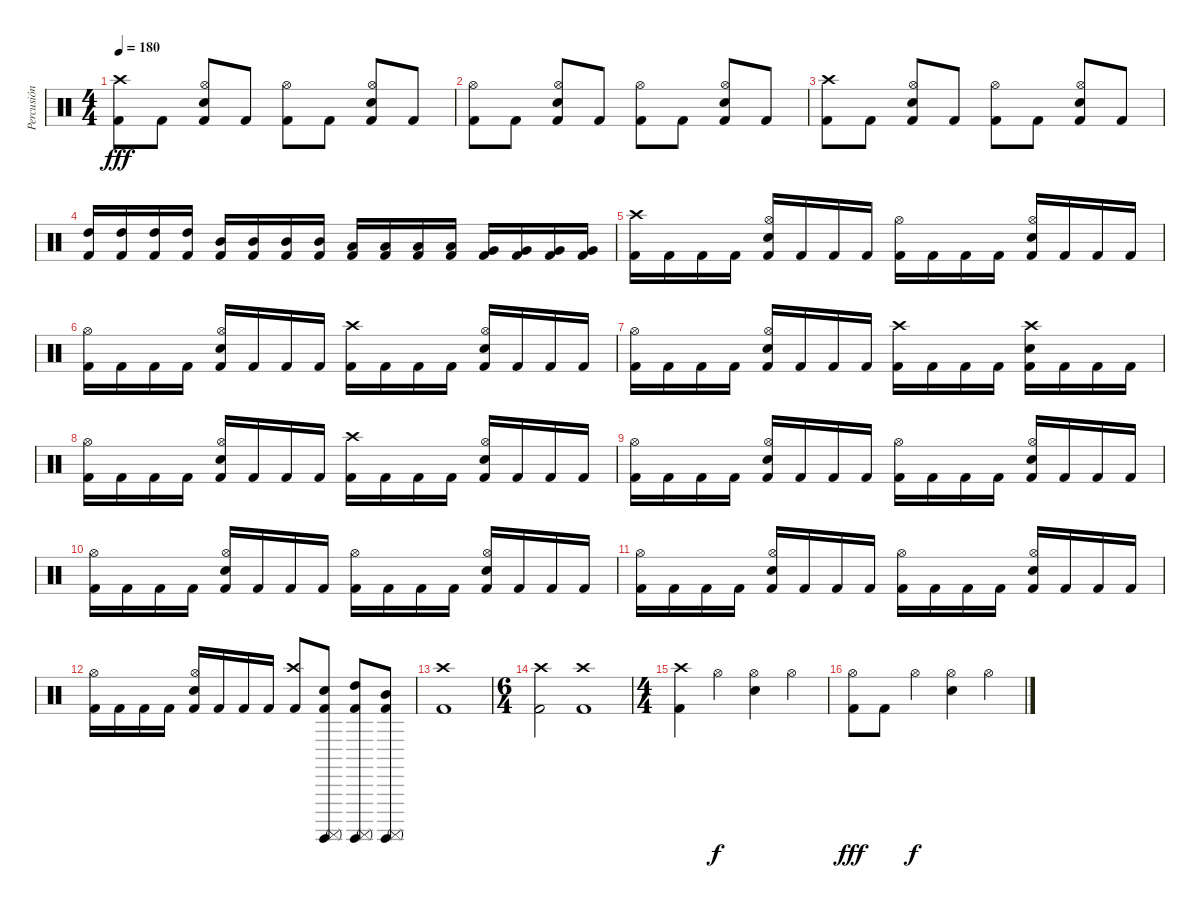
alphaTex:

\track ("Percusión" "Percusión") {instrument percussion}
\staff {score}
\articulation defaults
\ts (4 4)
\tempo 180
\clef neutral
\ks c
("Crash high (hit)" "Kick (hit) 2").8{dy fff} "Kick (hit) 2".8 ("Hi-Hat (open)" "Electric Snare (hit)" "Kick (hit) 2").8 "Kick (hit) 2".8 ("Hi-Hat (open)" "Kick (hit) 2").8 "Kick (hit) 2".8 ("Hi-Hat (open)" "Electric Snare (hit)" "Kick (hit) 2").8 "Kick (hit) 2".8 |
("Hi-Hat (open)" "Kick (hit) 2").8 "Kick (hit) 2".8 ("Hi-Hat (open)" "Electric Snare (hit)" "Kick (hit) 2").8 "Kick (hit) 2".8 ("Hi-Hat (open)" "Kick (hit) 2").8 "Kick (hit) 2".8 ("Hi-Hat (open)" "Electric Snare (hit)" "Kick (hit) 2").8 "Kick (hit) 2".8 |
("Crash high (hit)" "Kick (hit) 2").8 "Kick (hit) 2".8 ("Hi-Hat (open)" "Electric Snare (hit)" "Kick (hit) 2").8 "Kick (hit) 2".8 ("Hi-Hat (open)" "Kick (hit) 2").8 "Kick (hit) 2".8 ("Hi-Hat (open)" "Electric Snare (hit)" "Kick (hit) 2").8 "Kick (hit) 2".8 |
("High Tom (hit)" "Kick (hit) 2").16 ("High Tom (hit)" "Kick (hit) 2").16 ("High Tom (hit)" "Kick (hit) 2").16 ("High Tom (hit)" "Kick (hit) 2").16 ("Mid Tom (hit)" "Kick (hit) 2").16 ("Mid Tom (hit)" "Kick (hit) 2").16 ("Mid Tom (hit)" "Kick (hit) 2").16 ("Mid Tom (hit)" "Kick (hit) 2").16 ("Low Tom (hit)" "Kick (hit) 2").16 ("Low Tom (hit)" "Kick (hit) 2").16 ("Low Tom (hit)" "Kick (hit) 2").16 ("Low Tom (hit)" "Kick (hit) 2").16 ("Very Low Tom (hit)" "Kick (hit) 2").16 ("Very Low Tom (hit)" "Kick (hit) 2").16 ("Very Low Tom (hit)" "Kick (hit) 2").16 ("Very Low Tom (hit)" "Kick (hit) 2").16 |
("Crash high (hit)" "Kick (hit) 2").16 "Kick (hit) 2".16 "Kick (hit) 2".16 "Kick (hit) 2".16 ("Hi-Hat (open)" "Electric Snare (hit)" "Kick (hit) 2").16 "Kick (hit) 2".16 "Kick (hit) 2".16 "Kick (hit) 2".16 ("Hi-Hat (open)" "Kick (hit) 2").16 "Kick (hit) 2".16 "Kick (hit) 2".16 "Kick (hit) 2".16 ("Hi-Hat (open)" "Electric Snare (hit)" "Kick (hit) 2").16 "Kick (hit) 2".16 "Kick (hit) 2".16 "Kick (hit) 2".16 |
("Hi-Hat (open)" "Kick (hit) 2").16 "Kick (hit) 2".16 "Kick (hit) 2".16 "Kick (hit) 2".16 ("Hi-Hat (open)" "Electric Snare (hit)" "Kick (hit) 2").16 "Kick (hit) 2".16 "Kick (hit) 2".16 "Kick (hit) 2".16 ("Crash high (hit)" "Kick (hit) 2").16 "Kick (hit) 2".16 "Kick (hit) 2".16 "Kick (hit) 2".16 ("Hi-Hat (open)" "Electric Snare (hit)" "Kick (hit) 2").16 "Kick (hit) 2".16 "Kick (hit) 2".16 "Kick (hit) 2".16 |
("Hi-Hat (open)" "Kick (hit) 2").16 "Kick (hit) 2".16 "Kick (hit) 2".16 "Kick (hit) 2".16 ("Hi-Hat (open)" "Electric Snare (hit)" "Kick (hit) 2").16 "Kick (hit) 2".16 "Kick (hit) 2".16 "Kick (hit) 2".16 ("Crash high (hit)" "Kick (hit) 2").16 "Kick (hit) 2".16 "Kick (hit) 2".16 "Kick (hit) 2".16 ("Crash high (hit)" "Electric Snare (hit)" "Kick (hit) 2").16 "Kick (hit) 2".16 "Kick (hit) 2".16 "Kick (hit) 2".16 |
("Hi-Hat (open)" "Kick (hit) 2").16 "Kick (hit) 2".16 "Kick (hit) 2".16 "Kick (hit) 2".16 ("Hi-Hat (open)" "Electric Snare (hit)" "Kick (hit) 2").16 "Kick (hit) 2".16 "Kick (hit) 2".16 "Kick (hit) 2".16 ("Crash high (hit)" "Kick (hit) 2").16 "Kick (hit) 2".16 "Kick (hit) 2".16 "Kick (hit) 2".16 ("Hi-Hat (open)" "Electric Snare (hit)" "Kick (hit) 2").16 "Kick (hit) 2".16 "Kick (hit) 2".16 "Kick (hit) 2".16 |
("Hi-Hat (open)" "Kick (hit) 2").16 "Kick (hit) 2".16 "Kick (hit) 2".16 "Kick (hit) 2".16 ("Hi-Hat (open)" "Electric Snare (hit)" "Kick (hit) 2").16 "Kick (hit) 2".16 "Kick (hit) 2".16 "Kick (hit) 2".16 ("Hi-Hat (open)" "Kick (hit) 2").16 "Kick (hit) 2".16 "Kick (hit) 2".16 "Kick (hit) 2".16 ("Hi-Hat (open)" "Electric Snare (hit)" "Kick (hit) 2").16 "Kick (hit) 2".16 "Kick (hit) 2".16 "Kick (hit) 2".16 |
("Hi-Hat (open)" "Kick (hit) 2").16 "Kick (hit) 2".16 "Kick (hit) 2".16 "Kick (hit) 2".16 ("Hi-Hat (open)" "Electric Snare (hit)" "Kick (hit) 2").16 "Kick (hit) 2".16 "Kick (hit) 2".16 "Kick (hit) 2".16 ("Hi-Hat (open)" "Kick (hit) 2").16 "Kick (hit) 2".16 "Kick (hit) 2".16 "Kick (hit) 2".16 ("Hi-Hat (open)" "Electric Snare (hit)" "Kick (hit) 2").16 "Kick (hit) 2".16 "Kick (hit) 2".16 "Kick (hit) 2".16 |
("Hi-Hat (open)" "Kick (hit) 2").16 "Kick (hit) 2".16 "Kick (hit) 2".16 "Kick (hit) 2".16 ("Hi-Hat (open)" "Electric Snare (hit)" "Kick (hit) 2").16 "Kick (hit) 2".16 "Kick (hit) 2".16 "Kick (hit) 2".16 ("Hi-Hat (open)" "Kick (hit) 2").16 "Kick (hit) 2".16 "Kick (hit) 2".16 "Kick (hit) 2".16 ("Hi-Hat (open)" "Electric Snare (hit)" "Kick (hit) 2").16 "Kick (hit) 2".16 "Kick (hit) 2".16 "Kick (hit) 2".16 |
("Hi-Hat (open)" "Kick (hit) 2").16 "Kick (hit) 2".16 "Kick (hit) 2".16 "Kick (hit) 2".16 ("Hi-Hat (open)" "Electric Snare (hit)" "Kick (hit) 2").16 "Kick (hit) 2".16 "Kick (hit) 2".16 "Kick (hit) 2".16 ("Crash high (hit)" "Kick (hit) 2").8 ("Surdo (mute)" "Surdo (hit)" "Electric Snare (hit)" "Kick (hit) 2").8 ("Surdo (mute)" "Surdo (hit)" "High Tom (hit)" "Kick (hit) 2").8 ("Surdo (mute)" "Surdo (hit)" "Mid Tom (hit)" "Kick (hit) 2").8 |
("Crash high (hit)" "Kick (hit) 2").1 |
\ts (6 4)
("Crash high (hit)" "Kick (hit) 2").2 ("Crash high (hit)" "Kick (hit) 2").1 |
\ts (4 4)
("Crash high (hit)" "Kick (hit) 2").4 "Hi-Hat (open)".4{dy f} ("Hi-Hat (open)" "Electric Snare (hit)").4 "Hi-Hat (open)".4 |
("Hi-Hat (open)" "Kick (hit) 2").8{dy fff} "Kick (hit) 2".8 "Hi-Hat (open)".4{dy f} ("Hi-Hat (open)" "Electric Snare (hit)").4 "Hi-Hat (open)".4
